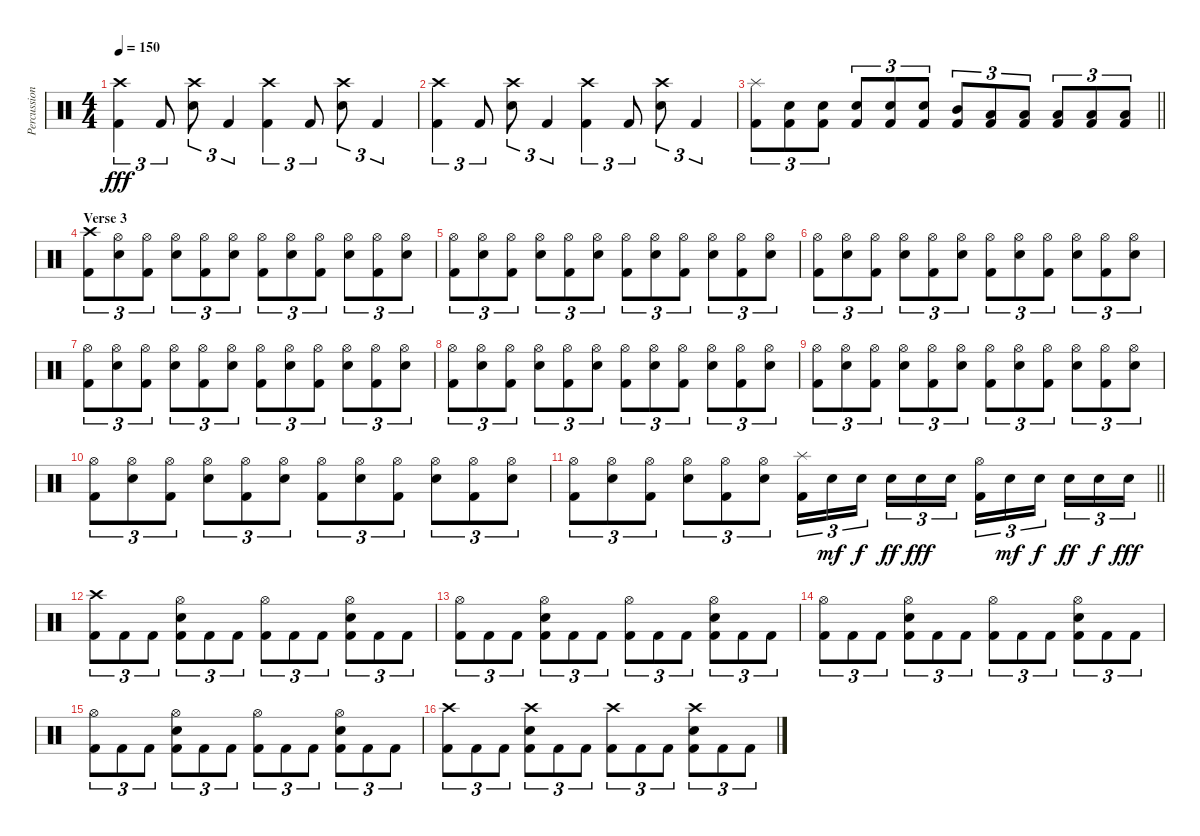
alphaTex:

\track ("Percussion" "Percussion") {instrument percussion}
\staff {score}
\articulation defaults
\ts (4 4)
\tempo 150
\clef neutral
\ks c
("Crash high (hit)" "Kick (hit) 2").4{tu (3 2) dy fff} "Kick (hit) 2".8{tu (3 2)} ("Crash high (hit)" "Snare (hit) 2").8{tu (3 2)} "Kick (hit) 2".4{tu (3 2)} ("Crash high (hit)" "Kick (hit) 2").4{tu (3 2)} "Kick (hit) 2".8{tu (3 2)} ("Crash high (hit)" "Snare (hit) 2").8{tu (3 2)} "Kick (hit) 2".4{tu (3 2)} |
("Crash high (hit)" "Kick (hit) 2").4{tu (3 2)} "Kick (hit) 2".8{tu (3 2)} ("Crash high (hit)" "Snare (hit) 2").8{tu (3 2)} "Kick (hit) 2".4{tu (3 2)} ("Crash high (hit)" "Kick (hit) 2").4{tu (3 2)} "Kick (hit) 2".8{tu (3 2)} ("Crash high (hit)" "Snare (hit) 2").8{tu (3 2)} "Kick (hit) 2".4{tu (3 2)} |
\barLineRight lightlight
("Splash (hit)" "Kick (hit) 2").8{tu (3 2)} ("Snare (hit) 2" "Kick (hit) 2").8{tu (3 2)} ("Snare (hit) 2" "Kick (hit) 2").8{tu (3 2)} ("Snare (hit) 2" "Kick (hit) 2").8{tu (3 2)} ("Snare (hit) 2" "Kick (hit) 2").8{tu (3 2)} ("Snare (hit) 2" "Kick (hit) 2").8{tu (3 2)} ("Mid Tom (hit)" "Kick (hit) 2").8{tu (3 2)} ("Low Tom (hit)" "Kick (hit) 2").8{tu (3 2)} ("Low Tom (hit)" "Kick (hit) 2").8{tu (3 2)} ("Low Tom (hit)" "Kick (hit) 2").8{tu (3 2)} ("Low Tom (hit)" "Kick (hit) 2").8{tu (3 2)} ("Low Floor Tom (hit)" "Kick (hit) 2").8{tu (3 2)} |
\section ("" "Verse 3")
("Crash high (hit)" "Kick (hit) 2").8{tu (3 2)} ("Snare (hit) 2" "Hi-Hat (open)").8{tu (3 2)} ("Hi-Hat (open)" "Kick (hit) 2").8{tu (3 2)} ("Snare (hit) 2" "Hi-Hat (open)").8{tu (3 2)} ("Hi-Hat (open)" "Kick (hit) 2").8{tu (3 2)} ("Snare (hit) 2" "Hi-Hat (open)").8{tu (3 2)} ("Hi-Hat (open)" "Kick (hit) 2").8{tu (3 2)} ("Snare (hit) 2" "Hi-Hat (open)").8{tu (3 2)} ("Hi-Hat (open)" "Kick (hit) 2").8{tu (3 2)} ("Snare (hit) 2" "Hi-Hat (open)").8{tu (3 2)} ("Hi-Hat (open)" "Kick (hit) 2").8{tu (3 2)} ("Snare (hit) 2" "Hi-Hat (open)").8{tu (3 2)} |
("Hi-Hat (open)" "Kick (hit) 2").8{tu (3 2)} ("Snare (hit) 2" "Hi-Hat (open)").8{tu (3 2)} ("Hi-Hat (open)" "Kick (hit) 2").8{tu (3 2)} ("Snare (hit) 2" "Hi-Hat (open)").8{tu (3 2)} ("Hi-Hat (open)" "Kick (hit) 2").8{tu (3 2)} ("Snare (hit) 2" "Hi-Hat (open)").8{tu (3 2)} ("Hi-Hat (open)" "Kick (hit) 2").8{tu (3 2)} ("Snare (hit) 2" "Hi-Hat (open)").8{tu (3 2)} ("Hi-Hat (open)" "Kick (hit) 2").8{tu (3 2)} ("Snare (hit) 2" "Hi-Hat (open)").8{tu (3 2)} ("Hi-Hat (open)" "Kick (hit) 2").8{tu (3 2)} ("Snare (hit) 2" "Hi-Hat (open)").8{tu (3 2)} |
("Hi-Hat (open)" "Kick (hit) 2").8{tu (3 2)} ("Snare (hit) 2" "Hi-Hat (open)").8{tu (3 2)} ("Hi-Hat (open)" "Kick (hit) 2").8{tu (3 2)} ("Snare (hit) 2" "Hi-Hat (open)").8{tu (3 2)} ("Hi-Hat (open)" "Kick (hit) 2").8{tu (3 2)} ("Snare (hit) 2" "Hi-Hat (open)").8{tu (3 2)} ("Hi-Hat (open)" "Kick (hit) 2").8{tu (3 2)} ("Snare (hit) 2" "Hi-Hat (open)").8{tu (3 2)} ("Hi-Hat (open)" "Kick (hit) 2").8{tu (3 2)} ("Snare (hit) 2" "Hi-Hat (open)").8{tu (3 2)} ("Hi-Hat (open)" "Kick (hit) 2").8{tu (3 2)} ("Snare (hit) 2" "Hi-Hat (open)").8{tu (3 2)} |
("Hi-Hat (open)" "Kick (hit) 2").8{tu (3 2)} ("Snare (hit) 2" "Hi-Hat (open)").8{tu (3 2)} ("Hi-Hat (open)" "Kick (hit) 2").8{tu (3 2)} ("Snare (hit) 2" "Hi-Hat (open)").8{tu (3 2)} ("Hi-Hat (open)" "Kick (hit) 2").8{tu (3 2)} ("Snare (hit) 2" "Hi-Hat (open)").8{tu (3 2)} ("Hi-Hat (open)" "Kick (hit) 2").8{tu (3 2)} ("Snare (hit) 2" "Hi-Hat (open)").8{tu (3 2)} ("Hi-Hat (open)" "Kick (hit) 2").8{tu (3 2)} ("Snare (hit) 2" "Hi-Hat (open)").8{tu (3 2)} ("Hi-Hat (open)" "Kick (hit) 2").8{tu (3 2)} ("Snare (hit) 2" "Hi-Hat (open)").8{tu (3 2)} |
("Hi-Hat (open)" "Kick (hit) 2").8{tu (3 2)} ("Snare (hit) 2" "Hi-Hat (open)").8{tu (3 2)} ("Hi-Hat (open)" "Kick (hit) 2").8{tu (3 2)} ("Snare (hit) 2" "Hi-Hat (open)").8{tu (3 2)} ("Hi-Hat (open)" "Kick (hit) 2").8{tu (3 2)} ("Snare (hit) 2" "Hi-Hat (open)").8{tu (3 2)} ("Hi-Hat (open)" "Kick (hit) 2").8{tu (3 2)} ("Snare (hit) 2" "Hi-Hat (open)").8{tu (3 2)} ("Hi-Hat (open)" "Kick (hit) 2").8{tu (3 2)} ("Snare (hit) 2" "Hi-Hat (open)").8{tu (3 2)} ("Hi-Hat (open)" "Kick (hit) 2").8{tu (3 2)} ("Snare (hit) 2" "Hi-Hat (open)").8{tu (3 2)} |
("Hi-Hat (open)" "Kick (hit) 2").8{tu (3 2)} ("Snare (hit) 2" "Hi-Hat (open)").8{tu (3 2)} ("Hi-Hat (open)" "Kick (hit) 2").8{tu (3 2)} ("Snare (hit) 2" "Hi-Hat (open)").8{tu (3 2)} ("Hi-Hat (open)" "Kick (hit) 2").8{tu (3 2)} ("Snare (hit) 2" "Hi-Hat (open)").8{tu (3 2)} ("Hi-Hat (open)" "Kick (hit) 2").8{tu (3 2)} ("Snare (hit) 2" "Hi-Hat (open)").8{tu (3 2)} ("Hi-Hat (open)" "Kick (hit) 2").8{tu (3 2)} ("Snare (hit) 2" "Hi-Hat (open)").8{tu (3 2)} ("Hi-Hat (open)" "Kick (hit) 2").8{tu (3 2)} ("Snare (hit) 2" "Hi-Hat (open)").8{tu (3 2)} |
("Hi-Hat (open)" "Kick (hit) 2").8{tu (3 2)} ("Snare (hit) 2" "Hi-Hat (open)").8{tu (3 2)} ("Hi-Hat (open)" "Kick (hit) 2").8{tu (3 2)} ("Snare (hit) 2" "Hi-Hat (open)").8{tu (3 2)} ("Hi-Hat (open)" "Kick (hit) 2").8{tu (3 2)} ("Snare (hit) 2" "Hi-Hat (open)").8{tu (3 2)} ("Hi-Hat (open)" "Kick (hit) 2").8{tu (3 2)} ("Snare (hit) 2" "Hi-Hat (open)").8{tu (3 2)} ("Hi-Hat (open)" "Kick (hit) 2").8{tu (3 2)} ("Snare (hit) 2" "Hi-Hat (open)").8{tu (3 2)} ("Hi-Hat (open)" "Kick (hit) 2").8{tu (3 2)} ("Snare (hit) 2" "Hi-Hat (open)").8{tu (3 2)} |
\barLineRight lightlight
("Hi-Hat (open)" "Kick (hit) 2").8{tu (3 2)} ("Snare (hit) 2" "Hi-Hat (open)").8{tu (3 2)} ("Hi-Hat (open)" "Kick (hit) 2").8{tu (3 2)} ("Snare (hit) 2" "Hi-Hat (open)").8{tu (3 2)} ("Hi-Hat (open)" "Kick (hit) 2").8{tu (3 2)} ("Snare (hit) 2" "Hi-Hat (open)").8{tu (3 2)} ("Splash (hit)" "Kick (hit) 2").16{tu (3 2)} "Snare (hit) 2".16{tu (3 2) dy mf} "Snare (hit) 2".16{tu (3 2) dy f beam splitsecondary} "Snare (hit) 2".16{tu (3 2) dy ff} "Snare (hit) 2".16{tu (3 2) dy fff} "Snare (hit) 2".16{tu (3 2)} ("Hi-Hat (open)" "Kick (hit) 2").16{tu (3 2)} "Snare (hit) 2".16{tu (3 2) dy mf} "Snare (hit) 2".16{tu (3 2) dy f beam splitsecondary} "Snare (hit) 2".16{tu (3 2) dy ff} "Snare (hit) 2".16{tu (3 2) dy f} "Snare (hit) 2".16{tu (3 2) dy fff} |
\section ("" "")
("Crash high (hit)" "Kick (hit) 2").8{tu (3 2)} "Kick (hit) 2".8{tu (3 2)} "Kick (hit) 2".8{tu (3 2)} ("Snare (hit) 2" "Hi-Hat (open)" "Kick (hit) 2").8{tu (3 2)} "Kick (hit) 2".8{tu (3 2)} "Kick (hit) 2".8{tu (3 2)} ("Hi-Hat (open)" "Kick (hit) 2").8{tu (3 2)} "Kick (hit) 2".8{tu (3 2)} "Kick (hit) 2".8{tu (3 2)} ("Snare (hit) 2" "Hi-Hat (open)" "Kick (hit) 2").8{tu (3 2)} "Kick (hit) 2".8{tu (3 2)} "Kick (hit) 2".8{tu (3 2)} |
("Hi-Hat (open)" "Kick (hit) 2").8{tu (3 2)} "Kick (hit) 2".8{tu (3 2)} "Kick (hit) 2".8{tu (3 2)} ("Snare (hit) 2" "Hi-Hat (open)" "Kick (hit) 2").8{tu (3 2)} "Kick (hit) 2".8{tu (3 2)} "Kick (hit) 2".8{tu (3 2)} ("Hi-Hat (open)" "Kick (hit) 2").8{tu (3 2)} "Kick (hit) 2".8{tu (3 2)} "Kick (hit) 2".8{tu (3 2)} ("Snare (hit) 2" "Hi-Hat (open)" "Kick (hit) 2").8{tu (3 2)} "Kick (hit) 2".8{tu (3 2)} "Kick (hit) 2".8{tu (3 2)} |
("Hi-Hat (open)" "Kick (hit) 2").8{tu (3 2)} "Kick (hit) 2".8{tu (3 2)} "Kick (hit) 2".8{tu (3 2)} ("Snare (hit) 2" "Hi-Hat (open)" "Kick (hit) 2").8{tu (3 2)} "Kick (hit) 2".8{tu (3 2)} "Kick (hit) 2".8{tu (3 2)} ("Hi-Hat (open)" "Kick (hit) 2").8{tu (3 2)} "Kick (hit) 2".8{tu (3 2)} "Kick (hit) 2".8{tu (3 2)} ("Snare (hit) 2" "Hi-Hat (open)" "Kick (hit) 2").8{tu (3 2)} "Kick (hit) 2".8{tu (3 2)} "Kick (hit) 2".8{tu (3 2)} |
("Hi-Hat (open)" "Kick (hit) 2").8{tu (3 2)} "Kick (hit) 2".8{tu (3 2)} "Kick (hit) 2".8{tu (3 2)} ("Snare (hit) 2" "Hi-Hat (open)" "Kick (hit) 2").8{tu (3 2)} "Kick (hit) 2".8{tu (3 2)} "Kick (hit) 2".8{tu (3 2)} ("Hi-Hat (open)" "Kick (hit) 2").8{tu (3 2)} "Kick (hit) 2".8{tu (3 2)} "Kick (hit) 2".8{tu (3 2)} ("Snare (hit) 2" "Hi-Hat (open)" "Kick (hit) 2").8{tu (3 2)} "Kick (hit) 2".8{tu (3 2)} "Kick (hit) 2".8{tu (3 2)} |
("Crash high (hit)" "Kick (hit) 2").8{tu (3 2)} "Kick (hit) 2".8{tu (3 2)} "Kick (hit) 2".8{tu (3 2)} ("Crash high (hit)" "Snare (hit) 2" "Kick (hit) 2").8{tu (3 2)} "Kick (hit) 2".8{tu (3 2)} "Kick (hit) 2".8{tu (3 2)} ("Crash high (hit)" "Kick (hit) 2").8{tu (3 2)} "Kick (hit) 2".8{tu (3 2)} "Kick (hit) 2".8{tu (3 2)} ("Crash high (hit)" "Snare (hit) 2" "Kick (hit) 2").8{tu (3 2)} "Kick (hit) 2".8{tu (3 2)} "Kick (hit) 2".8{tu (3 2)}
